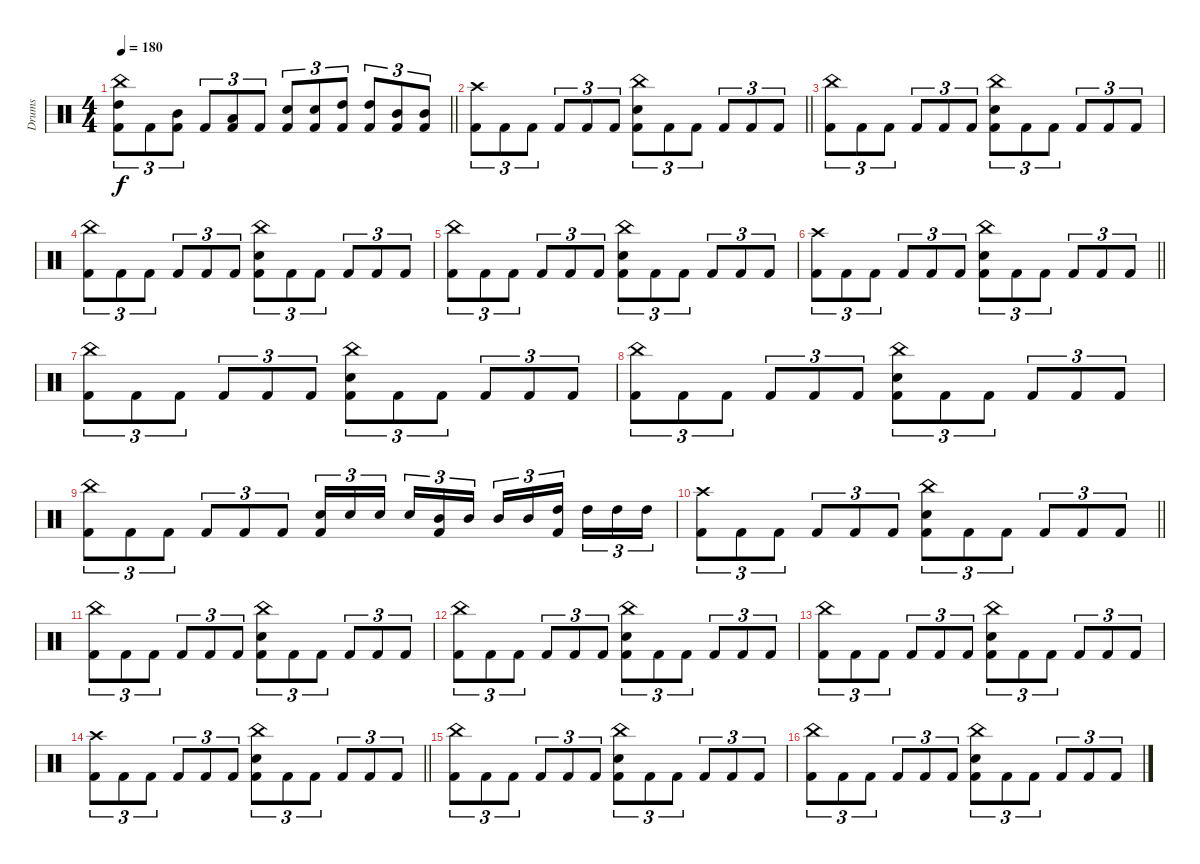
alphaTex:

\track ("Drums" "Drums") {instrument percussion}
\staff {score}
\articulation defaults
\ts (4 4)
\tempo 180
\clef neutral
\barLineRight lightlight
\ks c
("China (hit)" "High Tom (hit)" "Kick (hit) 2").8{tu (3 2) dy f} "Kick (hit) 2".8{tu (3 2)} ("Mid Tom (hit)" "Kick (hit) 2").8{tu (3 2)} "Kick (hit) 2".8{tu (3 2)} ("Low Tom (hit)" "Kick (hit) 2").8{tu (3 2)} "Kick (hit) 2".8{tu (3 2)} ("Snare (hit) 2" "Kick (hit) 2").8{tu (3 2)} ("Snare (hit) 2" "Kick (hit) 2").8{tu (3 2)} ("High Tom (hit)" "Kick (hit) 2").8{tu (3 2)} ("High Tom (hit)" "Kick (hit) 2").8{tu (3 2)} ("Mid Tom (hit)" "Kick (hit) 2").8{tu (3 2)} ("Mid Tom (hit)" "Kick (hit) 2").8{tu (3 2)} |
\barLineRight lightlight
("Crash high (hit)" "Kick (hit) 2").8{tu (3 2)} "Kick (hit) 2".8{tu (3 2)} "Kick (hit) 2".8{tu (3 2)} "Kick (hit) 2".8{tu (3 2)} "Kick (hit) 2".8{tu (3 2)} "Kick (hit) 2".8{tu (3 2)} ("China (hit)" "Snare (hit) 2" "Kick (hit) 2").8{tu (3 2)} "Kick (hit) 2".8{tu (3 2)} "Kick (hit) 2".8{tu (3 2)} "Kick (hit) 2".8{tu (3 2)} "Kick (hit) 2".8{tu (3 2)} "Kick (hit) 2".8{tu (3 2)} |
("China (hit)" "Kick (hit) 2").8{tu (3 2)} "Kick (hit) 2".8{tu (3 2)} "Kick (hit) 2".8{tu (3 2)} "Kick (hit) 2".8{tu (3 2)} "Kick (hit) 2".8{tu (3 2)} "Kick (hit) 2".8{tu (3 2)} ("China (hit)" "Snare (hit) 2" "Kick (hit) 2").8{tu (3 2)} "Kick (hit) 2".8{tu (3 2)} "Kick (hit) 2".8{tu (3 2)} "Kick (hit) 2".8{tu (3 2)} "Kick (hit) 2".8{tu (3 2)} "Kick (hit) 2".8{tu (3 2)} |
("China (hit)" "Kick (hit) 2").8{tu (3 2)} "Kick (hit) 2".8{tu (3 2)} "Kick (hit) 2".8{tu (3 2)} "Kick (hit) 2".8{tu (3 2)} "Kick (hit) 2".8{tu (3 2)} "Kick (hit) 2".8{tu (3 2)} ("China (hit)" "Snare (hit) 2" "Kick (hit) 2").8{tu (3 2)} "Kick (hit) 2".8{tu (3 2)} "Kick (hit) 2".8{tu (3 2)} "Kick (hit) 2".8{tu (3 2)} "Kick (hit) 2".8{tu (3 2)} "Kick (hit) 2".8{tu (3 2)} |
("China (hit)" "Kick (hit) 2").8{tu (3 2)} "Kick (hit) 2".8{tu (3 2)} "Kick (hit) 2".8{tu (3 2)} "Kick (hit) 2".8{tu (3 2)} "Kick (hit) 2".8{tu (3 2)} "Kick (hit) 2".8{tu (3 2)} ("China (hit)" "Snare (hit) 2" "Kick (hit) 2").8{tu (3 2)} "Kick (hit) 2".8{tu (3 2)} "Kick (hit) 2".8{tu (3 2)} "Kick (hit) 2".8{tu (3 2)} "Kick (hit) 2".8{tu (3 2)} "Kick (hit) 2".8{tu (3 2)} |
\barLineRight lightlight
("Crash high (hit)" "Kick (hit) 2").8{tu (3 2)} "Kick (hit) 2".8{tu (3 2)} "Kick (hit) 2".8{tu (3 2)} "Kick (hit) 2".8{tu (3 2)} "Kick (hit) 2".8{tu (3 2)} "Kick (hit) 2".8{tu (3 2)} ("China (hit)" "Snare (hit) 2" "Kick (hit) 2").8{tu (3 2)} "Kick (hit) 2".8{tu (3 2)} "Kick (hit) 2".8{tu (3 2)} "Kick (hit) 2".8{tu (3 2)} "Kick (hit) 2".8{tu (3 2)} "Kick (hit) 2".8{tu (3 2)} |
("China (hit)" "Kick (hit) 2").8{tu (3 2)} "Kick (hit) 2".8{tu (3 2)} "Kick (hit) 2".8{tu (3 2)} "Kick (hit) 2".8{tu (3 2)} "Kick (hit) 2".8{tu (3 2)} "Kick (hit) 2".8{tu (3 2)} ("China (hit)" "Snare (hit) 2" "Kick (hit) 2").8{tu (3 2)} "Kick (hit) 2".8{tu (3 2)} "Kick (hit) 2".8{tu (3 2)} "Kick (hit) 2".8{tu (3 2)} "Kick (hit) 2".8{tu (3 2)} "Kick (hit) 2".8{tu (3 2)} |
("China (hit)" "Kick (hit) 2").8{tu (3 2)} "Kick (hit) 2".8{tu (3 2)} "Kick (hit) 2".8{tu (3 2)} "Kick (hit) 2".8{tu (3 2)} "Kick (hit) 2".8{tu (3 2)} "Kick (hit) 2".8{tu (3 2)} ("China (hit)" "Snare (hit) 2" "Kick (hit) 2").8{tu (3 2)} "Kick (hit) 2".8{tu (3 2)} "Kick (hit) 2".8{tu (3 2)} "Kick (hit) 2".8{tu (3 2)} "Kick (hit) 2".8{tu (3 2)} "Kick (hit) 2".8{tu (3 2)} |
("China (hit)" "Kick (hit) 2").8{tu (3 2)} "Kick (hit) 2".8{tu (3 2)} "Kick (hit) 2".8{tu (3 2)} "Kick (hit) 2".8{tu (3 2)} "Kick (hit) 2".8{tu (3 2)} "Kick (hit) 2".8{tu (3 2)} ("Snare (hit) 2" "Kick (hit) 2").16{tu (3 2)} "Snare (hit) 2".16{tu (3 2)} "Snare (hit) 2".16{tu (3 2) beam splitsecondary} "Snare (hit) 2".16{tu (3 2)} ("Mid Tom (hit)" "Kick (hit) 2").16{tu (3 2)} "Mid Tom (hit)".16{tu (3 2)} "Mid Tom (hit)".16{tu (3 2)} "Mid Tom (hit)".16{tu (3 2)} ("High Tom (hit)" "Kick (hit) 2").16{tu (3 2) beam splitsecondary} "High Tom (hit)".16{tu (3 2)} "High Tom (hit)".16{tu (3 2)} "High Tom (hit)".16{tu (3 2)} |
\barLineRight lightlight
("Crash high (hit)" "Kick (hit) 2").8{tu (3 2)} "Kick (hit) 2".8{tu (3 2)} "Kick (hit) 2".8{tu (3 2)} "Kick (hit) 2".8{tu (3 2)} "Kick (hit) 2".8{tu (3 2)} "Kick (hit) 2".8{tu (3 2)} ("China (hit)" "Snare (hit) 2" "Kick (hit) 2").8{tu (3 2)} "Kick (hit) 2".8{tu (3 2)} "Kick (hit) 2".8{tu (3 2)} "Kick (hit) 2".8{tu (3 2)} "Kick (hit) 2".8{tu (3 2)} "Kick (hit) 2".8{tu (3 2)} |
("China (hit)" "Kick (hit) 2").8{tu (3 2)} "Kick (hit) 2".8{tu (3 2)} "Kick (hit) 2".8{tu (3 2)} "Kick (hit) 2".8{tu (3 2)} "Kick (hit) 2".8{tu (3 2)} "Kick (hit) 2".8{tu (3 2)} ("China (hit)" "Snare (hit) 2" "Kick (hit) 2").8{tu (3 2)} "Kick (hit) 2".8{tu (3 2)} "Kick (hit) 2".8{tu (3 2)} "Kick (hit) 2".8{tu (3 2)} "Kick (hit) 2".8{tu (3 2)} "Kick (hit) 2".8{tu (3 2)} |
("China (hit)" "Kick (hit) 2").8{tu (3 2)} "Kick (hit) 2".8{tu (3 2)} "Kick (hit) 2".8{tu (3 2)} "Kick (hit) 2".8{tu (3 2)} "Kick (hit) 2".8{tu (3 2)} "Kick (hit) 2".8{tu (3 2)} ("China (hit)" "Snare (hit) 2" "Kick (hit) 2").8{tu (3 2)} "Kick (hit) 2".8{tu (3 2)} "Kick (hit) 2".8{tu (3 2)} "Kick (hit) 2".8{tu (3 2)} "Kick (hit) 2".8{tu (3 2)} "Kick (hit) 2".8{tu (3 2)} |
("China (hit)" "Kick (hit) 2").8{tu (3 2)} "Kick (hit) 2".8{tu (3 2)} "Kick (hit) 2".8{tu (3 2)} "Kick (hit) 2".8{tu (3 2)} "Kick (hit) 2".8{tu (3 2)} "Kick (hit) 2".8{tu (3 2)} ("China (hit)" "Snare (hit) 2" "Kick (hit) 2").8{tu (3 2)} "Kick (hit) 2".8{tu (3 2)} "Kick (hit) 2".8{tu (3 2)} "Kick (hit) 2".8{tu (3 2)} "Kick (hit) 2".8{tu (3 2)} "Kick (hit) 2".8{tu (3 2)} |
\barLineRight lightlight
("Crash high (hit)" "Kick (hit) 2").8{tu (3 2)} "Kick (hit) 2".8{tu (3 2)} "Kick (hit) 2".8{tu (3 2)} "Kick (hit) 2".8{tu (3 2)} "Kick (hit) 2".8{tu (3 2)} "Kick (hit) 2".8{tu (3 2)} ("China (hit)" "Snare (hit) 2" "Kick (hit) 2").8{tu (3 2)} "Kick (hit) 2".8{tu (3 2)} "Kick (hit) 2".8{tu (3 2)} "Kick (hit) 2".8{tu (3 2)} "Kick (hit) 2".8{tu (3 2)} "Kick (hit) 2".8{tu (3 2)} |
("China (hit)" "Kick (hit) 2").8{tu (3 2)} "Kick (hit) 2".8{tu (3 2)} "Kick (hit) 2".8{tu (3 2)} "Kick (hit) 2".8{tu (3 2)} "Kick (hit) 2".8{tu (3 2)} "Kick (hit) 2".8{tu (3 2)} ("China (hit)" "Snare (hit) 2" "Kick (hit) 2").8{tu (3 2)} "Kick (hit) 2".8{tu (3 2)} "Kick (hit) 2".8{tu (3 2)} "Kick (hit) 2".8{tu (3 2)} "Kick (hit) 2".8{tu (3 2)} "Kick (hit) 2".8{tu (3 2)} |
("China (hit)" "Kick (hit) 2").8{tu (3 2)} "Kick (hit) 2".8{tu (3 2)} "Kick (hit) 2".8{tu (3 2)} "Kick (hit) 2".8{tu (3 2)} "Kick (hit) 2".8{tu (3 2)} "Kick (hit) 2".8{tu (3 2)} ("China (hit)" "Snare (hit) 2" "Kick (hit) 2").8{tu (3 2)} "Kick (hit) 2".8{tu (3 2)} "Kick (hit) 2".8{tu (3 2)} "Kick (hit) 2".8{tu (3 2)} "Kick (hit) 2".8{tu (3 2)} "Kick (hit) 2".8{tu (3 2)}
